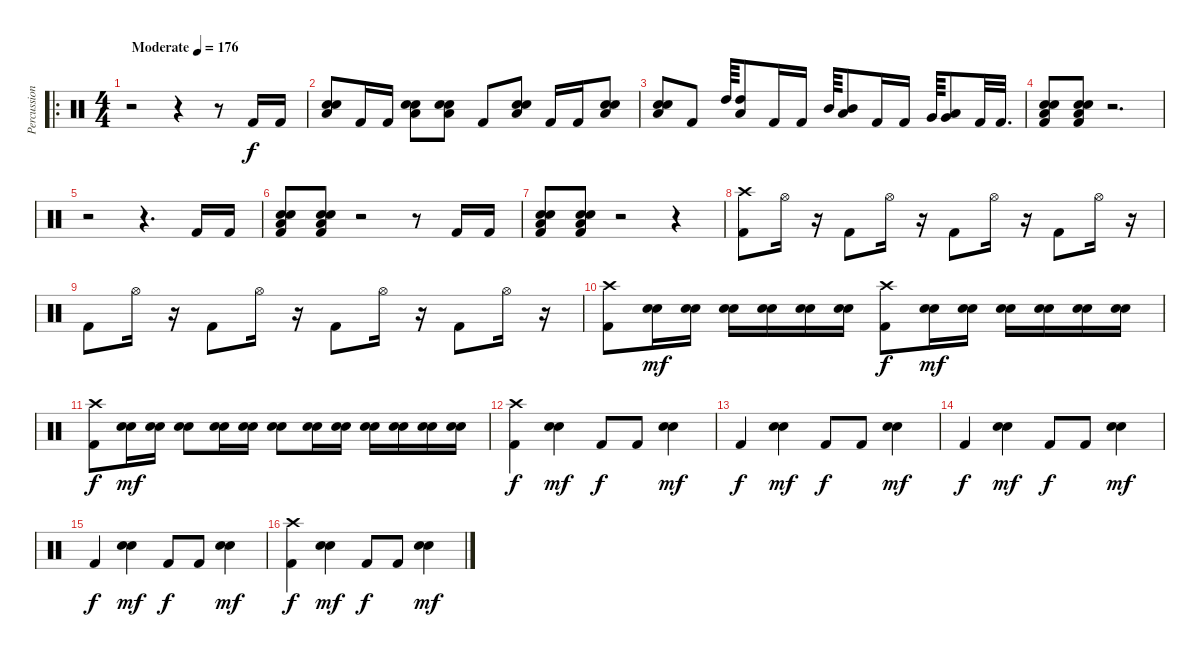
\track ("Percussion" "Percussion") {instrument percussion}
\staff {score}
\articulation defaults
\ro
\ts (4 4)
\tempo (176 "Moderate")
\clef neutral
\ks c
r.2{dy f} r.4 r.8 "Kick (hit) 2".16 "Kick (hit) 2".16 |
("Electric Snare (hit)" "Snare (hit) 2" "Low Floor Tom (hit)").8 "Kick (hit) 2".16 "Kick (hit) 2".16 ("Electric Snare (hit)" "Snare (hit) 2" "Low Floor Tom (hit)").8 ("Electric Snare (hit)" "Snare (hit) 2" "Low Floor Tom (hit)").8 "Kick (hit) 2".8 ("Electric Snare (hit)" "Snare (hit) 2" "Low Floor Tom (hit)").8 "Kick (hit) 2".16 "Kick (hit) 2".16 ("Electric Snare (hit)" "Snare (hit) 2" "Low Floor Tom (hit)").8 |
("Electric Snare (hit)" "Snare (hit) 2" "Low Floor Tom (hit)").8 "Kick (hit) 2".8 "High Tom (hit)".64 ("High Tom (hit)" "Low Floor Tom (hit)").8 "Kick (hit) 2".16 "Kick (hit) 2".16 "Mid Tom (hit)".64 ("Mid Tom (hit)" "Low Floor Tom (hit)").8 "Kick (hit) 2".16 "Kick (hit) 2".16 "Very Low Tom (hit)".64 ("Very Low Tom (hit)" "Low Floor Tom (hit)").8 "Kick (hit) 2".32 "Kick (hit) 2".32{d} |
("Electric Snare (hit)" "Snare (hit) 2" "Low Floor Tom (hit)" "Kick (hit) 2").8 ("Electric Snare (hit)" "Snare (hit) 2" "Low Floor Tom (hit)" "Kick (hit) 2").8 r.2{d} |
r.2 r.4{d} "Kick (hit) 2".16 "Kick (hit) 2".16 |
("Electric Snare (hit)" "Snare (hit) 2" "Low Floor Tom (hit)" "Kick (hit) 2").8 ("Electric Snare (hit)" "Snare (hit) 2" "Low Floor Tom (hit)" "Kick (hit) 2").8 r.2 r.8 "Kick (hit) 2".16 "Kick (hit) 2".16 |
("Electric Snare (hit)" "Snare (hit) 2" "Low Floor Tom (hit)" "Kick (hit) 2").8 ("Electric Snare (hit)" "Snare (hit) 2" "Low Floor Tom (hit)" "Kick (hit) 2").8 r.2 r.4 |
("Kick (hit) 2" "Crash high (hit)").8 "Hi-Hat (open)".16 r.16 "Kick (hit) 2".8 "Hi-Hat (open)".16 r.16 "Kick (hit) 2".8 "Hi-Hat (open)".16 r.16 "Kick (hit) 2".8 "Hi-Hat (open)".16 r.16 |
"Kick (hit) 2".8 "Hi-Hat (open)".16 r.16 "Kick (hit) 2".8 "Hi-Hat (open)".16 r.16 "Kick (hit) 2".8 "Hi-Hat (open)".16 r.16 "Kick (hit) 2".8 "Hi-Hat (open)".16 r.16 |
("Kick (hit) 2" "Crash high (hit)").8 ("Electric Snare (hit)" "Snare (hit) 2").16{dy mf} ("Electric Snare (hit)" "Snare (hit) 2").16 ("Electric Snare (hit)" "Snare (hit) 2").16 ("Electric Snare (hit)" "Snare (hit) 2").16 ("Electric Snare (hit)" "Snare (hit) 2").16 ("Electric Snare (hit)" "Snare (hit) 2").16 ("Kick (hit) 2" "Crash high (hit)").8{dy f} ("Electric Snare (hit)" "Snare (hit) 2").16{dy mf} ("Electric Snare (hit)" "Snare (hit) 2").16 ("Electric Snare (hit)" "Snare (hit) 2").16 ("Electric Snare (hit)" "Snare (hit) 2").16 ("Electric Snare (hit)" "Snare (hit) 2").16 ("Electric Snare (hit)" "Snare (hit) 2").16 |
("Kick (hit) 2" "Crash high (hit)").8{dy f} ("Electric Snare (hit)" "Snare (hit) 2").16{dy mf} ("Electric Snare (hit)" "Snare (hit) 2").16 ("Electric Snare (hit)" "Snare (hit) 2").8 ("Electric Snare (hit)" "Snare (hit) 2").16 ("Electric Snare (hit)" "Snare (hit) 2").16 ("Electric Snare (hit)" "Snare (hit) 2").8 ("Electric Snare (hit)" "Snare (hit) 2").16 ("Electric Snare (hit)" "Snare (hit) 2").16 ("Electric Snare (hit)" "Snare (hit) 2").16 ("Electric Snare (hit)" "Snare (hit) 2").16 ("Electric Snare (hit)" "Snare (hit) 2").16 ("Electric Snare (hit)" "Snare (hit) 2").16 |
("Kick (hit) 2" "Crash high (hit)").4{dy f} ("Electric Snare (hit)" "Snare (hit) 2").4{dy mf} "Kick (hit) 2".8{dy f} "Kick (hit) 2".8 ("Electric Snare (hit)" "Snare (hit) 2").4{dy mf} |
"Kick (hit) 2".4{dy f} ("Electric Snare (hit)" "Snare (hit) 2").4{dy mf} "Kick (hit) 2".8{dy f} "Kick (hit) 2".8 ("Electric Snare (hit)" "Snare (hit) 2").4{dy mf} |
"Kick (hit) 2".4{dy f} ("Electric Snare (hit)" "Snare (hit) 2").4{dy mf} "Kick (hit) 2".8{dy f} "Kick (hit) 2".8 ("Electric Snare (hit)" "Snare (hit) 2").4{dy mf} |
"Kick (hit) 2".4{dy f} ("Electric Snare (hit)" "Snare (hit) 2").4{dy mf} "Kick (hit) 2".8{dy f} "Kick (hit) 2".8 ("Electric Snare (hit)" "Snare (hit) 2").4{dy mf} |
("Kick (hit) 2" "Crash high (hit)").4{dy f} ("Electric Snare (hit)" "Snare (hit) 2").4{dy mf} "Kick (hit) 2".8{dy f} "Kick (hit) 2".8 ("Electric Snare (hit)" "Snare (hit) 2").4{dy mf}
